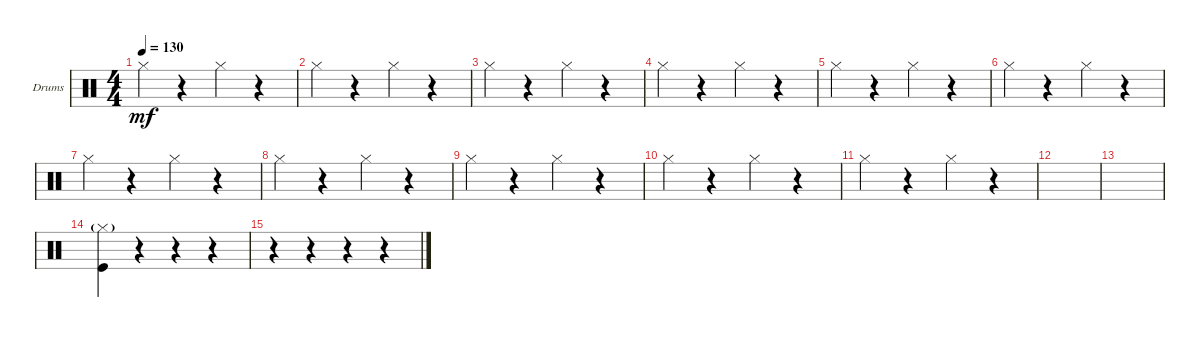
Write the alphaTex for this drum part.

\defaultSystemsLayout 4
\bracketExtendMode groupsimilarinstruments
\firstSystemTrackNameOrientation horizontal
\otherSystemsTrackNameOrientation horizontal
\track ("Drumkit" "Drums") {instrument percussion}
\staff {score}
\articulation defaults
\ts (4 4)
\tempo 130
\clef neutral
\scale
0.333333
\ks c "Hi-Hat (closed)".4{dy mf}
r.4 "Hi-Hat (closed)".4 r.4 |
\scale
0.333333 "Hi-Hat (closed)".4 r.4 "Hi-Hat (closed)".4 r.4 |
\scale
0.333333 "Hi-Hat (closed)".4 r.4 "Hi-Hat (closed)".4 r.4 |
"Hi-Hat (closed)".4 r.4 "Hi-Hat (closed)".4 r.4 |
"Hi-Hat (closed)".4 r.4 "Hi-Hat (closed)".4 r.4 |
"Hi-Hat (closed)".4 r.4 "Hi-Hat (closed)".4 r.4 |
"Hi-Hat (closed)".4 r.4 "Hi-Hat (closed)".4 r.4 |
"Hi-Hat (closed)".4 r.4 "Hi-Hat (closed)".4 r.4 |
"Hi-Hat (closed)".4 r.4 "Hi-Hat (closed)".4 r.4 |
"Hi-Hat (closed)".4 r.4 "Hi-Hat (closed)".4 r.4 |
"Hi-Hat (closed)".4 r.4 "Hi-Hat (closed)".4 r.4 |
|
|
("Hi-Hat (closed)"{g} "Kick (hit)").4 r.4 r.4 r.4 |
r.4 r.4 r.4 r.4
